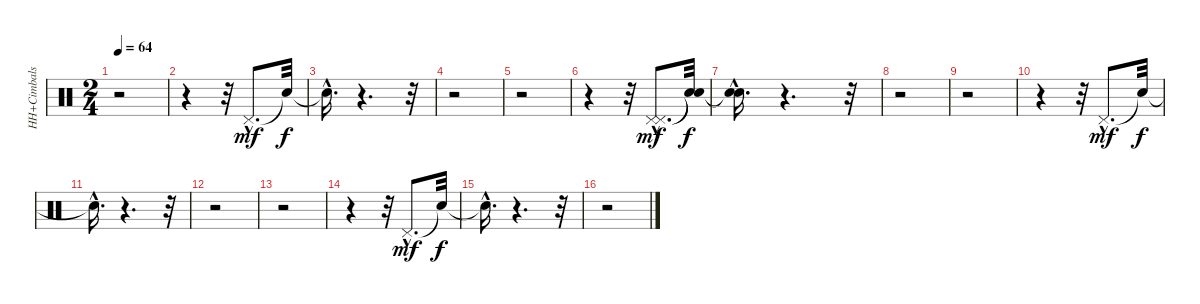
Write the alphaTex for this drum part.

\track ("HH+Cimbals" "HH+Cimbals") {instrument percussion}
\staff {score}
\articulation defaults
\ts (2 4)
\tempo 64
\clef neutral
\ks c
r.2{dy f} |
r.4 r.32 "Pedal Hi-Hat (hit)"{hac}.8{d dy mf} "Snare (hit)"{t}.32{dy f} |
"Snare (hit)"{hac t}.16{d} r.4{d} r.32 |
r.2 |
r.2 |
r.4 r.32 ("Pedal Hi-Hat (hit)"{hac} "Pedal Hi-Hat (hit)"{hac}).8{d dy mf} ("Snare (hit)"{t} "Snare (hit)"{t}).32{dy f} |
("Snare (hit)"{hac t} "Snare (hit)"{hac t}).16{d} r.4{d} r.32 |
r.2 |
r.2 |
r.4 r.32 "Pedal Hi-Hat (hit)"{hac}.8{d dy mf} "Snare (hit)"{t}.32{dy f} |
"Snare (hit)"{hac t}.16{d} r.4{d} r.32 |
r.2 |
r.2 |
r.4 r.32 "Pedal Hi-Hat (hit)"{hac}.8{d dy mf} "Snare (hit)"{t}.32{dy f} |
"Snare (hit)"{hac t}.16{d} r.4{d} r.32 |
r.2
